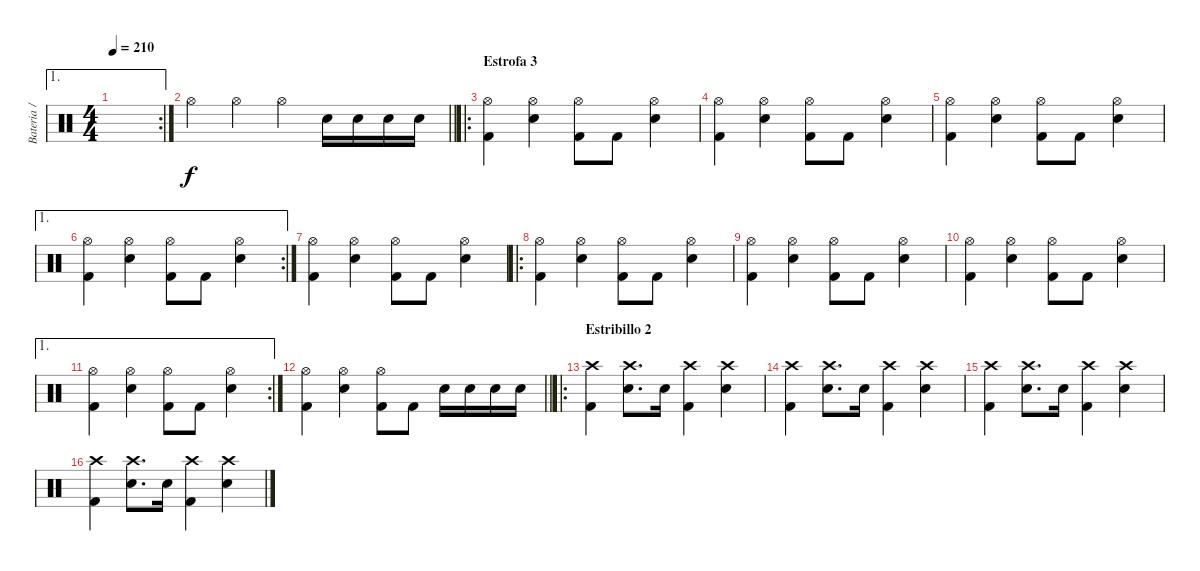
\track ("Bateria / Percusión" "Bateria / ") {instrument percussion}
\staff {score}
\articulation defaults
\ae 1
\rc 2
\ts (4 4)
\tempo 210
\clef neutral
\ks c
|
\barLineRight lightlight "Hi-Hat (open)".4 "Hi-Hat (open)".4 "Hi-Hat (open)".4 "Electric Snare (hit)".16 "Electric Snare (hit)".16 "Electric Snare (hit)".16 "Electric Snare (hit)".16
|
\ro
\section ("" "Estrofa 3")
("Hi-Hat (open)" "Kick (hit) 2").4 ("Hi-Hat (open)" "Electric Snare (hit)").4 ("Hi-Hat (open)" "Kick (hit) 2").8 "Kick (hit) 2".8 ("Hi-Hat (open)" "Electric Snare (hit)").4 |
("Hi-Hat (open)" "Kick (hit) 2").4 ("Hi-Hat (open)" "Electric Snare (hit)").4 ("Hi-Hat (open)" "Kick (hit) 2").8 "Kick (hit) 2".8 ("Hi-Hat (open)" "Electric Snare (hit)").4 |
("Hi-Hat (open)" "Kick (hit) 2").4 ("Hi-Hat (open)" "Electric Snare (hit)").4 ("Hi-Hat (open)" "Kick (hit) 2").8 "Kick (hit) 2".8 ("Hi-Hat (open)" "Electric Snare (hit)").4 |
\ae 1
\rc 2
("Hi-Hat (open)" "Kick (hit) 2").4 ("Hi-Hat (open)" "Electric Snare (hit)").4 ("Hi-Hat (open)" "Kick (hit) 2").8 "Kick (hit) 2".8 ("Hi-Hat (open)" "Electric Snare (hit)").4 |
("Hi-Hat (open)" "Kick (hit) 2").4 ("Hi-Hat (open)" "Electric Snare (hit)").4 ("Hi-Hat (open)" "Kick (hit) 2").8 "Kick (hit) 2".8 ("Hi-Hat (open)" "Electric Snare (hit)").4 |
\ro
("Hi-Hat (open)" "Kick (hit) 2").4 ("Hi-Hat (open)" "Electric Snare (hit)").4 ("Hi-Hat (open)" "Kick (hit) 2").8 "Kick (hit) 2".8 ("Hi-Hat (open)" "Electric Snare (hit)").4 |
("Hi-Hat (open)" "Kick (hit) 2").4 ("Hi-Hat (open)" "Electric Snare (hit)").4 ("Hi-Hat (open)" "Kick (hit) 2").8 "Kick (hit) 2".8 ("Hi-Hat (open)" "Electric Snare (hit)").4 |
("Hi-Hat (open)" "Kick (hit) 2").4 ("Hi-Hat (open)" "Electric Snare (hit)").4 ("Hi-Hat (open)" "Kick (hit) 2").8 "Kick (hit) 2".8 ("Hi-Hat (open)" "Electric Snare (hit)").4 |
\ae 1
\rc 2
("Hi-Hat (open)" "Kick (hit) 2").4 ("Hi-Hat (open)" "Electric Snare (hit)").4 ("Hi-Hat (open)" "Kick (hit) 2").8 "Kick (hit) 2".8 ("Hi-Hat (open)" "Electric Snare (hit)").4 |
\barLineRight lightlight
("Hi-Hat (open)" "Kick (hit) 2").4 ("Hi-Hat (open)" "Electric Snare (hit)").4 ("Hi-Hat (open)" "Kick (hit) 2").8 "Kick (hit) 2".8 "Electric Snare (hit)".16 "Electric Snare (hit)".16 "Electric Snare (hit)".16 "Electric Snare (hit)".16 |
\ro
\section ("" "Estribillo 2")
("Crash high (hit)" "Kick (hit) 2").4 ("Crash high (hit)" "Electric Snare (hit)").8{d} "Electric Snare (hit)".16 ("Crash high (hit)" "Kick (hit) 2").4 ("Crash high (hit)" "Electric Snare (hit)").4 |
("Crash high (hit)" "Kick (hit) 2").4 ("Crash high (hit)" "Electric Snare (hit)").8{d} "Electric Snare (hit)".16 ("Crash high (hit)" "Kick (hit) 2").4 ("Crash high (hit)" "Electric Snare (hit)").4 |
("Crash high (hit)" "Kick (hit) 2").4 ("Crash high (hit)" "Electric Snare (hit)").8{d} "Electric Snare (hit)".16 ("Crash high (hit)" "Kick (hit) 2").4 ("Crash high (hit)" "Electric Snare (hit)").4 |
("Crash high (hit)" "Kick (hit) 2").4 ("Crash high (hit)" "Electric Snare (hit)").8{d} "Electric Snare (hit)".16 ("Crash high (hit)" "Kick (hit) 2").4 ("Crash high (hit)" "Electric Snare (hit)").4
